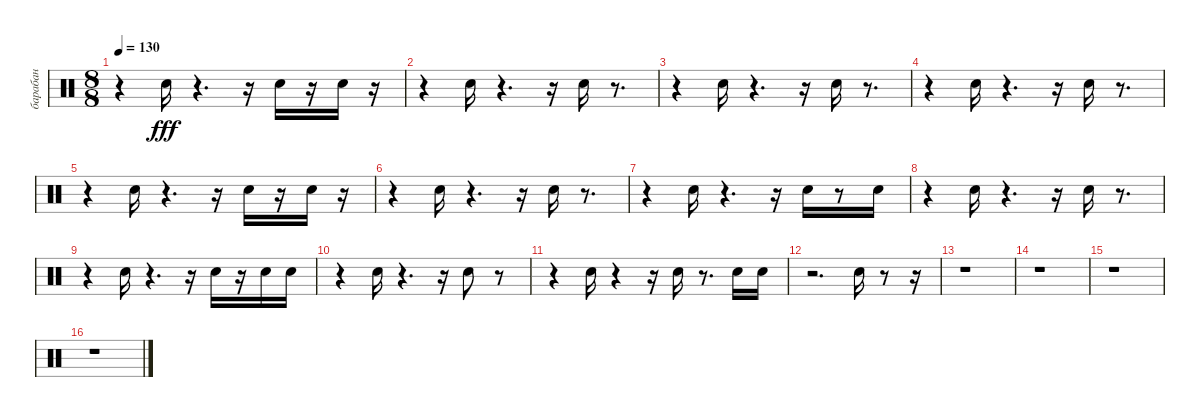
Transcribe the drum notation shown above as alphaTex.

\track ("барабан" "барабан") {instrument percussion}
\staff {score}
\articulation defaults
\ts (8 8)
\tempo 130
\clef neutral
\ks c
r.4{dy fff} "Snare (hit) 2".16 r.4{d} r.16 "Snare (hit) 2".16 r.16 "Snare (hit) 2".16 r.16 |
r.4 "Snare (hit) 2".16 r.4{d} r.16 "Snare (hit) 2".16 r.8{d} |
r.4 "Snare (hit) 2".16 r.4{d} r.16 "Snare (hit) 2".16 r.8{d} |
r.4 "Snare (hit) 2".16 r.4{d} r.16 "Snare (hit) 2".16 r.8{d} |
r.4 "Snare (hit) 2".16 r.4{d} r.16 "Snare (hit) 2".16 r.16 "Snare (hit) 2".16 r.16 |
r.4 "Snare (hit) 2".16 r.4{d} r.16 "Snare (hit) 2".16 r.8{d} |
r.4 "Snare (hit) 2".16 r.4{d} r.16 "Snare (hit) 2".16 r.8 "Snare (hit) 2".16 |
r.4 "Snare (hit) 2".16 r.4{d} r.16 "Snare (hit) 2".16 r.8{d} |
r.4 "Snare (hit) 2".16 r.4{d} r.16 "Snare (hit) 2".16 r.16 "Snare (hit) 2".16 "Snare (hit) 2".16 |
r.4 "Snare (hit) 2".16 r.4{d} r.16 "Snare (hit) 2".8 r.8 |
r.4 "Snare (hit) 2".16 r.4 r.16 "Snare (hit) 2".16 r.8{d} "Snare (hit) 2".16 "Snare (hit) 2".16 |
r.2{d} "Snare (hit) 2".16 r.8 r.16 |
r.1 |
r.1 |
r.1 |
r.1
